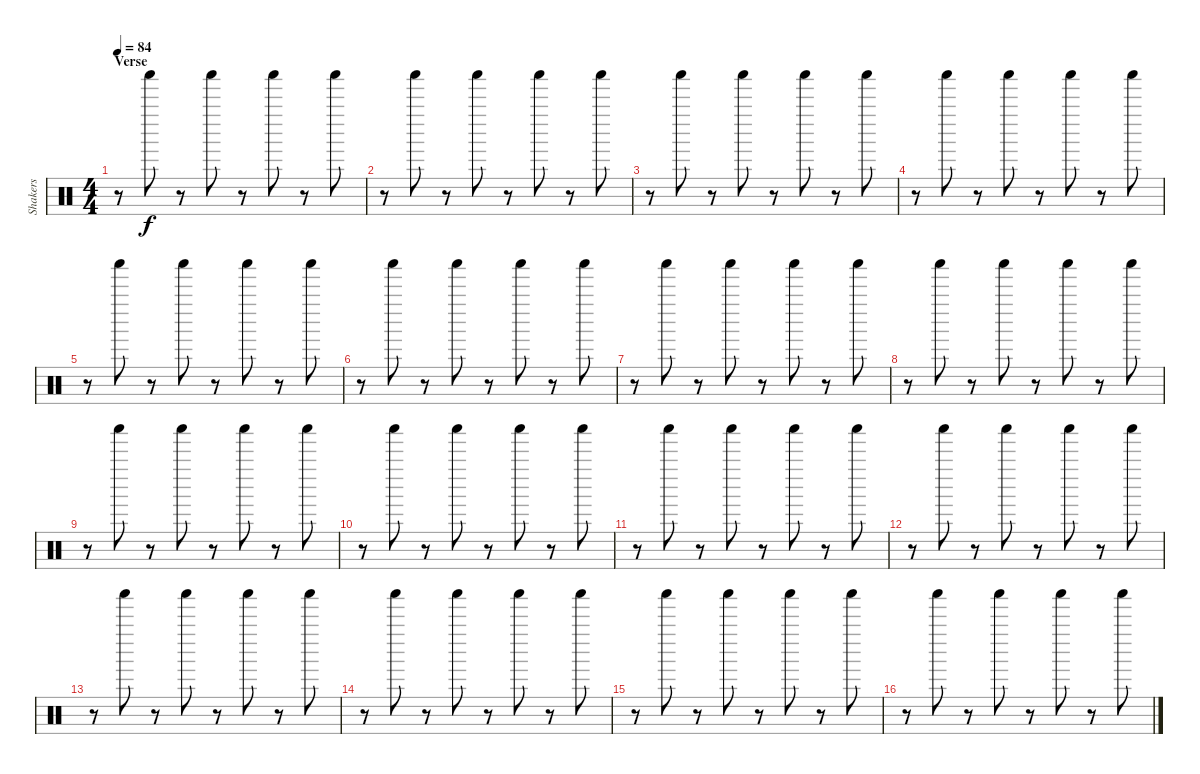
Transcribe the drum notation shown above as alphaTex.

\track ("Shakers" "Shakers") {instrument percussion}
\staff {score}
\articulation defaults
\ts (4 4)
\section ("" "Verse")
\tempo 84
\clef neutral
\ks c
r.8{dy f} "Shaker (hit)".8 r.8 "Shaker (hit)".8 r.8 "Shaker (hit)".8 r.8 "Shaker (hit)".8 |
r.8 "Shaker (hit)".8 r.8 "Shaker (hit)".8 r.8 "Shaker (hit)".8 r.8 "Shaker (hit)".8 |
r.8 "Shaker (hit)".8 r.8 "Shaker (hit)".8 r.8 "Shaker (hit)".8 r.8 "Shaker (hit)".8 |
r.8 "Shaker (hit)".8 r.8 "Shaker (hit)".8 r.8 "Shaker (hit)".8 r.8 "Shaker (hit)".8 |
r.8 "Shaker (hit)".8 r.8 "Shaker (hit)".8 r.8 "Shaker (hit)".8 r.8 "Shaker (hit)".8 |
r.8 "Shaker (hit)".8 r.8 "Shaker (hit)".8 r.8 "Shaker (hit)".8 r.8 "Shaker (hit)".8 |
r.8 "Shaker (hit)".8 r.8 "Shaker (hit)".8 r.8 "Shaker (hit)".8 r.8 "Shaker (hit)".8 |
r.8 "Shaker (hit)".8 r.8 "Shaker (hit)".8 r.8 "Shaker (hit)".8 r.8 "Shaker (hit)".8 |
r.8 "Shaker (hit)".8 r.8 "Shaker (hit)".8 r.8 "Shaker (hit)".8 r.8 "Shaker (hit)".8 |
r.8 "Shaker (hit)".8 r.8 "Shaker (hit)".8 r.8 "Shaker (hit)".8 r.8 "Shaker (hit)".8 |
r.8 "Shaker (hit)".8 r.8 "Shaker (hit)".8 r.8 "Shaker (hit)".8 r.8 "Shaker (hit)".8 |
r.8 "Shaker (hit)".8 r.8 "Shaker (hit)".8 r.8 "Shaker (hit)".8 r.8 "Shaker (hit)".8 |
r.8 "Shaker (hit)".8 r.8 "Shaker (hit)".8 r.8 "Shaker (hit)".8 r.8 "Shaker (hit)".8 |
r.8 "Shaker (hit)".8 r.8 "Shaker (hit)".8 r.8 "Shaker (hit)".8 r.8 "Shaker (hit)".8 |
r.8 "Shaker (hit)".8 r.8 "Shaker (hit)".8 r.8 "Shaker (hit)".8 r.8 "Shaker (hit)".8 |
r.8 "Shaker (hit)".8 r.8 "Shaker (hit)".8 r.8 "Shaker (hit)".8 r.8 "Shaker (hit)".8
